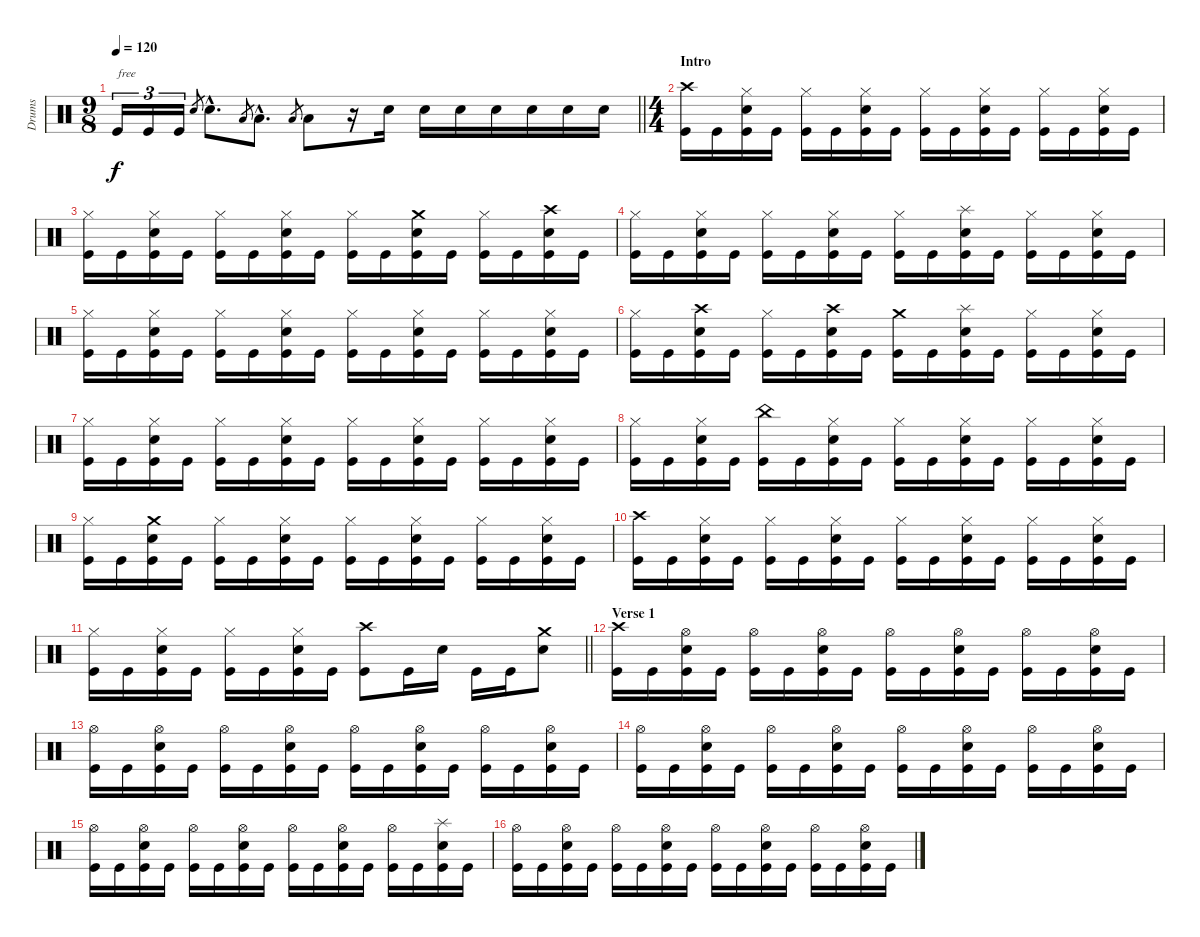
\track ("Drums" "Drums") {instrument percussion}
\staff {score}
\articulation defaults
\ts (9 8)
\tempo 120
\clef neutral
\barLineRight lightlight
\ks c "Kick (hit)".16{tu (3 2) txt "free" dy f} "Kick (hit)".16{tu (3 2)} "Kick (hit)".16{tu (3 2)} "Electric Snare (hit)".8{gr} "Electric Snare (hit)"{hac}.8{d} "Low Tom (hit)".8{gr} "Low Tom (hit)"{hac}.8{d} "Low Floor Tom (hit)".8{gr} "Low Floor Tom (hit)".8
r.16 "Electric Snare (hit)".16 "Electric Snare (hit)".16 "Electric Snare (hit)".16 "Electric Snare (hit)".16 "Electric Snare (hit)".16 "Electric Snare (hit)".16 "Electric Snare (hit)".16 |
\ts (4 4)
\section ("" "Intro")
("Crash high (hit)" "Kick (hit)").16 "Kick (hit)".16 ("Hi-Hat (closed)" "Electric Snare (hit)" "Kick (hit)").16 "Kick (hit)".16 ("Hi-Hat (closed)" "Kick (hit)").16 "Kick (hit)".16 ("Hi-Hat (closed)" "Electric Snare (hit)" "Kick (hit)").16 "Kick (hit)".16 ("Hi-Hat (closed)" "Kick (hit)").16 "Kick (hit)".16 ("Hi-Hat (closed)" "Electric Snare (hit)" "Kick (hit)").16 "Kick (hit)".16 ("Hi-Hat (closed)" "Kick (hit)").16 "Kick (hit)".16 ("Hi-Hat (closed)" "Electric Snare (hit)" "Kick (hit)").16 "Kick (hit)".16 |
("Hi-Hat (closed)" "Kick (hit)").16 "Kick (hit)".16 ("Hi-Hat (closed)" "Electric Snare (hit)" "Kick (hit)").16 "Kick (hit)".16 ("Hi-Hat (closed)" "Kick (hit)").16 "Kick (hit)".16 ("Hi-Hat (closed)" "Electric Snare (hit)" "Kick (hit)").16 "Kick (hit)".16 ("Hi-Hat (closed)" "Kick (hit)").16 "Kick (hit)".16 ("Crash medium (hit)" "Electric Snare (hit)" "Kick (hit)").16 "Kick (hit)".16 ("Hi-Hat (closed)" "Kick (hit)").16 "Kick (hit)".16 ("Crash high (hit)" "Electric Snare (hit)" "Kick (hit)").16 "Kick (hit)".16 |
("Hi-Hat (closed)" "Kick (hit)").16 "Kick (hit)".16 ("Hi-Hat (closed)" "Electric Snare (hit)" "Kick (hit)").16 "Kick (hit)".16 ("Hi-Hat (closed)" "Kick (hit)").16 "Kick (hit)".16 ("Hi-Hat (closed)" "Electric Snare (hit)" "Kick (hit)").16 "Kick (hit)".16 ("Hi-Hat (closed)" "Kick (hit)").16 "Kick (hit)".16 ("Splash (hit)" "Electric Snare (hit)" "Kick (hit)").16 "Kick (hit)".16 ("Hi-Hat (closed)" "Kick (hit)").16 "Kick (hit)".16 ("Hi-Hat (closed)" "Electric Snare (hit)" "Kick (hit)").16 "Kick (hit)".16 |
("Hi-Hat (closed)" "Kick (hit)").16 "Kick (hit)".16 ("Hi-Hat (closed)" "Electric Snare (hit)" "Kick (hit)").16 "Kick (hit)".16 ("Hi-Hat (closed)" "Kick (hit)").16 "Kick (hit)".16 ("Hi-Hat (closed)" "Electric Snare (hit)" "Kick (hit)").16 "Kick (hit)".16 ("Hi-Hat (closed)" "Kick (hit)").16 "Kick (hit)".16 ("Hi-Hat (closed)" "Electric Snare (hit)" "Kick (hit)").16 "Kick (hit)".16 ("Hi-Hat (closed)" "Kick (hit)").16 "Kick (hit)".16 ("Hi-Hat (closed)" "Electric Snare (hit)" "Kick (hit)").16 "Kick (hit)".16 |
("Hi-Hat (closed)" "Kick (hit)").16 "Kick (hit)".16 ("Crash high (hit)" "Electric Snare (hit)" "Kick (hit)").16 "Kick (hit)".16 ("Hi-Hat (closed)" "Kick (hit)").16 "Kick (hit)".16 ("Crash high (hit)" "Electric Snare (hit)" "Kick (hit)").16 "Kick (hit)".16 ("Crash medium (hit)" "Kick (hit)").16 "Kick (hit)".16 ("Splash (hit)" "Electric Snare (hit)" "Kick (hit)").16 "Kick (hit)".16 ("Hi-Hat (closed)" "Kick (hit)").16 "Kick (hit)".16 ("Hi-Hat (closed)" "Electric Snare (hit)" "Kick (hit)").16 "Kick (hit)".16 |
("Hi-Hat (closed)" "Kick (hit)").16 "Kick (hit)".16 ("Hi-Hat (closed)" "Electric Snare (hit)" "Kick (hit)").16 "Kick (hit)".16 ("Hi-Hat (closed)" "Kick (hit)").16 "Kick (hit)".16 ("Hi-Hat (closed)" "Electric Snare (hit)" "Kick (hit)").16 "Kick (hit)".16 ("Hi-Hat (closed)" "Kick (hit)").16 "Kick (hit)".16 ("Hi-Hat (closed)" "Electric Snare (hit)" "Kick (hit)").16 "Kick (hit)".16 ("Hi-Hat (closed)" "Kick (hit)").16 "Kick (hit)".16 ("Hi-Hat (closed)" "Electric Snare (hit)" "Kick (hit)").16 "Kick (hit)".16 |
("Hi-Hat (closed)" "Kick (hit)").16 "Kick (hit)".16 ("Hi-Hat (closed)" "Electric Snare (hit)" "Kick (hit)").16 "Kick (hit)".16 ("China (hit)" "Kick (hit)").16 "Kick (hit)".16 ("Hi-Hat (closed)" "Electric Snare (hit)" "Kick (hit)").16 "Kick (hit)".16 ("Hi-Hat (closed)" "Kick (hit)").16 "Kick (hit)".16 ("Hi-Hat (closed)" "Electric Snare (hit)" "Kick (hit)").16 "Kick (hit)".16 ("Hi-Hat (closed)" "Kick (hit)").16 "Kick (hit)".16 ("Hi-Hat (closed)" "Electric Snare (hit)" "Kick (hit)").16 "Kick (hit)".16 |
("Hi-Hat (closed)" "Kick (hit)").16 "Kick (hit)".16 ("Crash medium (hit)" "Electric Snare (hit)" "Kick (hit)").16 "Kick (hit)".16 ("Hi-Hat (closed)" "Kick (hit)").16 "Kick (hit)".16 ("Hi-Hat (closed)" "Electric Snare (hit)" "Kick (hit)").16 "Kick (hit)".16 ("Hi-Hat (closed)" "Kick (hit)").16 "Kick (hit)".16 ("Hi-Hat (closed)" "Electric Snare (hit)" "Kick (hit)").16 "Kick (hit)".16 ("Hi-Hat (closed)" "Kick (hit)").16 "Kick (hit)".16 ("Hi-Hat (closed)" "Electric Snare (hit)" "Kick (hit)").16 "Kick (hit)".16 |
("Crash high (hit)" "Kick (hit)").16 "Kick (hit)".16 ("Hi-Hat (closed)" "Electric Snare (hit)" "Kick (hit)").16 "Kick (hit)".16 ("Hi-Hat (closed)" "Kick (hit)").16 "Kick (hit)".16 ("Hi-Hat (closed)" "Electric Snare (hit)" "Kick (hit)").16 "Kick (hit)".16 ("Hi-Hat (closed)" "Kick (hit)").16 "Kick (hit)".16 ("Hi-Hat (closed)" "Electric Snare (hit)" "Kick (hit)").16 "Kick (hit)".16 ("Hi-Hat (closed)" "Kick (hit)").16 "Kick (hit)".16 ("Hi-Hat (closed)" "Electric Snare (hit)" "Kick (hit)").16 "Kick (hit)".16 |
\barLineRight lightlight
("Hi-Hat (closed)" "Kick (hit)").16 "Kick (hit)".16 ("Hi-Hat (closed)" "Electric Snare (hit)" "Kick (hit)").16 "Kick (hit)".16 ("Hi-Hat (closed)" "Kick (hit)").16 "Kick (hit)".16 ("Hi-Hat (closed)" "Electric Snare (hit)" "Kick (hit)").16 "Kick (hit)".16 ("Crash high (hit)" "Kick (hit)").8 "Kick (hit)".16 "Electric Snare (hit)".16 "Kick (hit)".16 "Kick (hit)".16 ("Crash medium (hit)" "Electric Snare (hit)").8 |
\section ("" "Verse 1")
("Crash high (hit)" "Kick (hit)").16 "Kick (hit)".16 ("Hi-Hat (open)" "Electric Snare (hit)" "Kick (hit)").16 "Kick (hit)".16 ("Hi-Hat (open)" "Kick (hit)").16 "Kick (hit)".16 ("Hi-Hat (open)" "Electric Snare (hit)" "Kick (hit)").16 "Kick (hit)".16 ("Hi-Hat (open)" "Kick (hit)").16 "Kick (hit)".16 ("Hi-Hat (open)" "Electric Snare (hit)" "Kick (hit)").16 "Kick (hit)".16 ("Hi-Hat (open)" "Kick (hit)").16 "Kick (hit)".16 ("Hi-Hat (open)" "Electric Snare (hit)" "Kick (hit)").16 "Kick (hit)".16 |
("Hi-Hat (open)" "Kick (hit)").16 "Kick (hit)".16 ("Hi-Hat (open)" "Electric Snare (hit)" "Kick (hit)").16 "Kick (hit)".16 ("Hi-Hat (open)" "Kick (hit)").16 "Kick (hit)".16 ("Hi-Hat (open)" "Electric Snare (hit)" "Kick (hit)").16 "Kick (hit)".16 ("Hi-Hat (open)" "Kick (hit)").16 "Kick (hit)".16 ("Hi-Hat (open)" "Electric Snare (hit)" "Kick (hit)").16 "Kick (hit)".16 ("Hi-Hat (open)" "Kick (hit)").16 "Kick (hit)".16 ("Hi-Hat (open)" "Electric Snare (hit)" "Kick (hit)").16 "Kick (hit)".16 |
("Hi-Hat (open)" "Kick (hit)").16 "Kick (hit)".16 ("Hi-Hat (open)" "Electric Snare (hit)" "Kick (hit)").16 "Kick (hit)".16 ("Hi-Hat (open)" "Kick (hit)").16 "Kick (hit)".16 ("Hi-Hat (open)" "Electric Snare (hit)" "Kick (hit)").16 "Kick (hit)".16 ("Hi-Hat (open)" "Kick (hit)").16 "Kick (hit)".16 ("Hi-Hat (open)" "Electric Snare (hit)" "Kick (hit)").16 "Kick (hit)".16 ("Hi-Hat (open)" "Kick (hit)").16 "Kick (hit)".16 ("Hi-Hat (open)" "Electric Snare (hit)" "Kick (hit)").16 "Kick (hit)".16 |
("Hi-Hat (open)" "Kick (hit)").16 "Kick (hit)".16 ("Hi-Hat (open)" "Electric Snare (hit)" "Kick (hit)").16 "Kick (hit)".16 ("Hi-Hat (open)" "Kick (hit)").16 "Kick (hit)".16 ("Hi-Hat (open)" "Electric Snare (hit)" "Kick (hit)").16 "Kick (hit)".16 ("Hi-Hat (open)" "Kick (hit)").16 "Kick (hit)".16 ("Hi-Hat (open)" "Electric Snare (hit)" "Kick (hit)").16 "Kick (hit)".16 ("Hi-Hat (open)" "Kick (hit)").16 "Kick (hit)".16 ("Splash (hit)" "Electric Snare (hit)" "Kick (hit)").16 "Kick (hit)".16 |
("Hi-Hat (open)" "Kick (hit)").16 "Kick (hit)".16 ("Hi-Hat (open)" "Electric Snare (hit)" "Kick (hit)").16 "Kick (hit)".16 ("Hi-Hat (open)" "Kick (hit)").16 "Kick (hit)".16 ("Hi-Hat (open)" "Electric Snare (hit)" "Kick (hit)").16 "Kick (hit)".16 ("Hi-Hat (open)" "Kick (hit)").16 "Kick (hit)".16 ("Hi-Hat (open)" "Electric Snare (hit)" "Kick (hit)").16 "Kick (hit)".16 ("Hi-Hat (open)" "Kick (hit)").16 "Kick (hit)".16 ("Hi-Hat (open)" "Electric Snare (hit)" "Kick (hit)").16 "Kick (hit)".16
